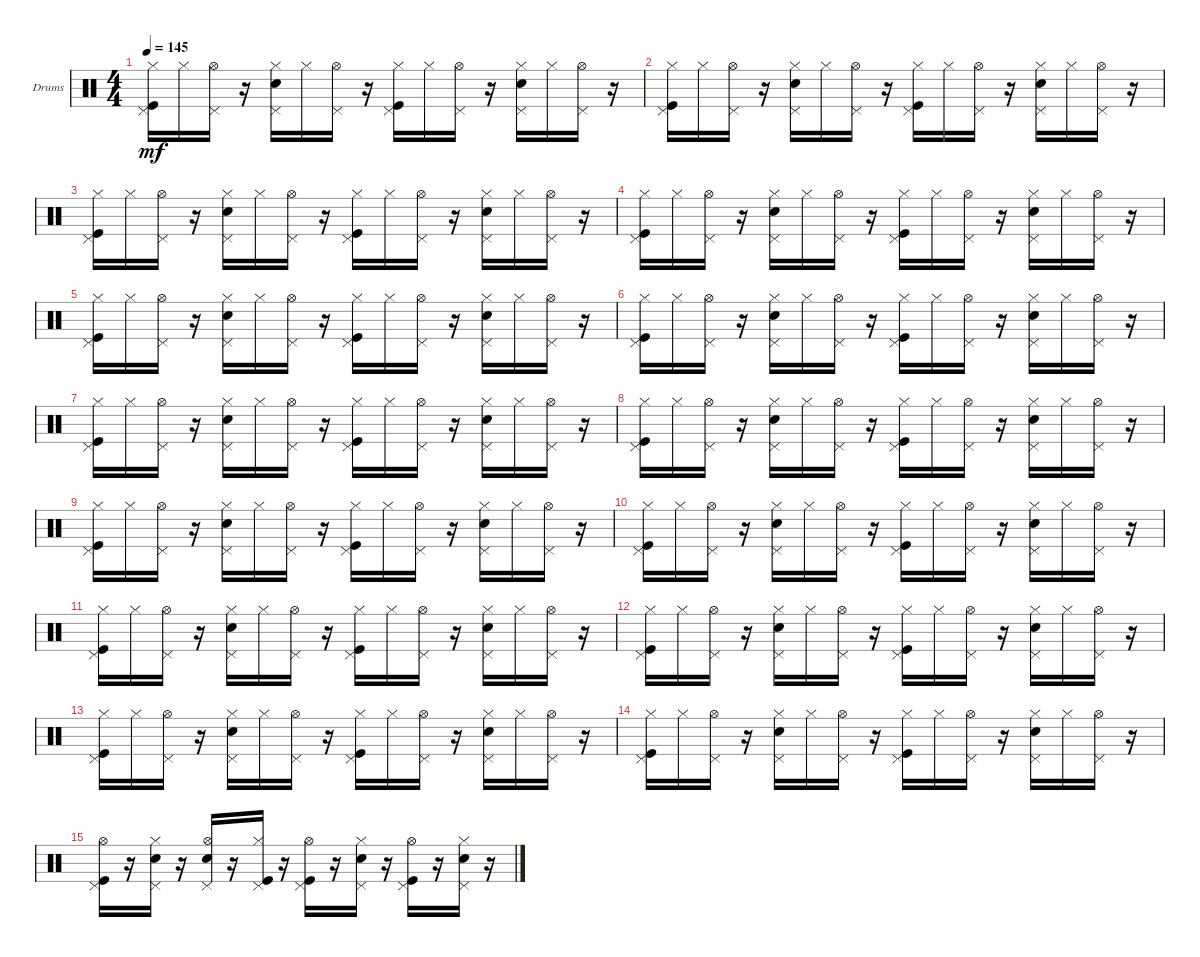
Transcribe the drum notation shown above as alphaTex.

\bracketExtendMode groupsimilarinstruments
\firstSystemTrackNameOrientation horizontal
\otherSystemsTrackNameOrientation horizontal
\track ("Drumkit" "Drums") {solo instrument percussion}
\staff {score}
\articulation defaults
\ts (4 4)
\tempo 145
\clef neutral
\ks c
("Kick (hit)" "Hi-Hat (closed)" "Pedal Hi-Hat (hit)").16{dy mf} "Hi-Hat (closed)".16 ("Hi-Hat (open)" "Pedal Hi-Hat (hit)").16 r.16 ("Snare (hit) 2" "Pedal Hi-Hat (hit)" "Hi-Hat (closed)").16 "Hi-Hat (closed)".16 ("Hi-Hat (open)" "Pedal Hi-Hat (hit)").16 r.16 ("Kick (hit)" "Hi-Hat (closed)" "Pedal Hi-Hat (hit)").16 "Hi-Hat (closed)".16 ("Hi-Hat (open)" "Pedal Hi-Hat (hit)").16 r.16 ("Snare (hit) 2" "Pedal Hi-Hat (hit)" "Hi-Hat (closed)").16 "Hi-Hat (closed)".16 ("Hi-Hat (open)" "Pedal Hi-Hat (hit)").16 r.16 |
("Kick (hit)" "Hi-Hat (closed)" "Pedal Hi-Hat (hit)").16 "Hi-Hat (closed)".16 ("Hi-Hat (open)" "Pedal Hi-Hat (hit)").16 r.16 ("Snare (hit) 2" "Pedal Hi-Hat (hit)" "Hi-Hat (closed)").16 "Hi-Hat (closed)".16 ("Hi-Hat (open)" "Pedal Hi-Hat (hit)").16 r.16 ("Kick (hit)" "Hi-Hat (closed)" "Pedal Hi-Hat (hit)").16 "Hi-Hat (closed)".16 ("Hi-Hat (open)" "Pedal Hi-Hat (hit)").16 r.16 ("Snare (hit) 2" "Pedal Hi-Hat (hit)" "Hi-Hat (closed)").16 "Hi-Hat (closed)".16 ("Hi-Hat (open)" "Pedal Hi-Hat (hit)").16 r.16 |
("Kick (hit)" "Hi-Hat (closed)" "Pedal Hi-Hat (hit)").16 "Hi-Hat (closed)".16 ("Hi-Hat (open)" "Pedal Hi-Hat (hit)").16 r.16 ("Snare (hit) 2" "Pedal Hi-Hat (hit)" "Hi-Hat (closed)").16 "Hi-Hat (closed)".16 ("Hi-Hat (open)" "Pedal Hi-Hat (hit)").16 r.16 ("Kick (hit)" "Hi-Hat (closed)" "Pedal Hi-Hat (hit)").16 "Hi-Hat (closed)".16 ("Hi-Hat (open)" "Pedal Hi-Hat (hit)").16 r.16 ("Snare (hit) 2" "Pedal Hi-Hat (hit)" "Hi-Hat (closed)").16 "Hi-Hat (closed)".16 ("Hi-Hat (open)" "Pedal Hi-Hat (hit)").16 r.16 |
("Kick (hit)" "Hi-Hat (closed)" "Pedal Hi-Hat (hit)").16 "Hi-Hat (closed)".16 ("Pedal Hi-Hat (hit)" "Hi-Hat (open)").16 r.16 ("Snare (hit) 2" "Pedal Hi-Hat (hit)" "Hi-Hat (closed)").16 "Hi-Hat (closed)".16 ("Hi-Hat (open)" "Pedal Hi-Hat (hit)").16 r.16 ("Kick (hit)" "Hi-Hat (closed)" "Pedal Hi-Hat (hit)").16 "Hi-Hat (closed)".16 ("Hi-Hat (open)" "Pedal Hi-Hat (hit)").16 r.16 ("Snare (hit) 2" "Pedal Hi-Hat (hit)" "Hi-Hat (closed)").16 "Hi-Hat (closed)".16 ("Hi-Hat (open)" "Pedal Hi-Hat (hit)").16 r.16 |
("Kick (hit)" "Hi-Hat (closed)" "Pedal Hi-Hat (hit)").16 "Hi-Hat (closed)".16 ("Hi-Hat (open)" "Pedal Hi-Hat (hit)").16 r.16 ("Snare (hit) 2" "Pedal Hi-Hat (hit)" "Hi-Hat (closed)").16 "Hi-Hat (closed)".16 ("Hi-Hat (open)" "Pedal Hi-Hat (hit)").16 r.16 ("Kick (hit)" "Hi-Hat (closed)" "Pedal Hi-Hat (hit)").16 "Hi-Hat (closed)".16 ("Hi-Hat (open)" "Pedal Hi-Hat (hit)").16 r.16 ("Snare (hit) 2" "Pedal Hi-Hat (hit)" "Hi-Hat (closed)").16 "Hi-Hat (closed)".16 ("Hi-Hat (open)" "Pedal Hi-Hat (hit)").16 r.16 |
("Kick (hit)" "Hi-Hat (closed)" "Pedal Hi-Hat (hit)").16 "Hi-Hat (closed)".16 ("Hi-Hat (open)" "Pedal Hi-Hat (hit)").16 r.16 ("Snare (hit) 2" "Pedal Hi-Hat (hit)" "Hi-Hat (closed)").16 "Hi-Hat (closed)".16 ("Hi-Hat (open)" "Pedal Hi-Hat (hit)").16 r.16 ("Kick (hit)" "Hi-Hat (closed)" "Pedal Hi-Hat (hit)").16 "Hi-Hat (closed)".16 ("Hi-Hat (open)" "Pedal Hi-Hat (hit)").16 r.16 ("Snare (hit) 2" "Pedal Hi-Hat (hit)" "Hi-Hat (closed)").16 "Hi-Hat (closed)".16 ("Hi-Hat (open)" "Pedal Hi-Hat (hit)").16 r.16 |
("Kick (hit)" "Hi-Hat (closed)" "Pedal Hi-Hat (hit)").16 "Hi-Hat (closed)".16 ("Hi-Hat (open)" "Pedal Hi-Hat (hit)").16 r.16 ("Snare (hit) 2" "Pedal Hi-Hat (hit)" "Hi-Hat (closed)").16 "Hi-Hat (closed)".16 ("Hi-Hat (open)" "Pedal Hi-Hat (hit)").16 r.16 ("Kick (hit)" "Hi-Hat (closed)" "Pedal Hi-Hat (hit)").16 "Hi-Hat (closed)".16 ("Hi-Hat (open)" "Pedal Hi-Hat (hit)").16 r.16 ("Snare (hit) 2" "Pedal Hi-Hat (hit)" "Hi-Hat (closed)").16 "Hi-Hat (closed)".16 ("Hi-Hat (open)" "Pedal Hi-Hat (hit)").16 r.16 |
("Pedal Hi-Hat (hit)" "Kick (hit)" "Hi-Hat (closed)").16 "Hi-Hat (closed)".16 ("Hi-Hat (open)" "Pedal Hi-Hat (hit)").16 r.16 ("Snare (hit) 2" "Pedal Hi-Hat (hit)" "Hi-Hat (closed)").16 "Hi-Hat (closed)".16 ("Hi-Hat (open)" "Pedal Hi-Hat (hit)").16 r.16 ("Kick (hit)" "Hi-Hat (closed)" "Pedal Hi-Hat (hit)").16 "Hi-Hat (closed)".16 ("Hi-Hat (open)" "Pedal Hi-Hat (hit)").16 r.16 ("Snare (hit) 2" "Pedal Hi-Hat (hit)" "Hi-Hat (closed)").16 "Hi-Hat (closed)".16 ("Hi-Hat (open)" "Pedal Hi-Hat (hit)").16 r.16 |
("Kick (hit)" "Hi-Hat (closed)" "Pedal Hi-Hat (hit)").16 "Hi-Hat (closed)".16 ("Hi-Hat (open)" "Pedal Hi-Hat (hit)").16 r.16 ("Snare (hit) 2" "Pedal Hi-Hat (hit)" "Hi-Hat (closed)").16 "Hi-Hat (closed)".16 ("Hi-Hat (open)" "Pedal Hi-Hat (hit)").16 r.16 ("Kick (hit)" "Hi-Hat (closed)" "Pedal Hi-Hat (hit)").16 "Hi-Hat (closed)".16 ("Hi-Hat (open)" "Pedal Hi-Hat (hit)").16 r.16 ("Snare (hit) 2" "Pedal Hi-Hat (hit)" "Hi-Hat (closed)").16 "Hi-Hat (closed)".16 ("Hi-Hat (open)" "Pedal Hi-Hat (hit)").16 r.16 |
("Kick (hit)" "Hi-Hat (closed)" "Pedal Hi-Hat (hit)").16 "Hi-Hat (closed)".16 ("Hi-Hat (open)" "Pedal Hi-Hat (hit)").16 r.16 ("Snare (hit) 2" "Pedal Hi-Hat (hit)" "Hi-Hat (closed)").16 "Hi-Hat (closed)".16 ("Hi-Hat (open)" "Pedal Hi-Hat (hit)").16 r.16 ("Kick (hit)" "Hi-Hat (closed)" "Pedal Hi-Hat (hit)").16 "Hi-Hat (closed)".16 ("Hi-Hat (open)" "Pedal Hi-Hat (hit)").16 r.16 ("Snare (hit) 2" "Pedal Hi-Hat (hit)" "Hi-Hat (closed)").16 "Hi-Hat (closed)".16 ("Hi-Hat (open)" "Pedal Hi-Hat (hit)").16 r.16 |
("Kick (hit)" "Hi-Hat (closed)" "Pedal Hi-Hat (hit)").16 "Hi-Hat (closed)".16 ("Hi-Hat (open)" "Pedal Hi-Hat (hit)").16 r.16 ("Snare (hit) 2" "Pedal Hi-Hat (hit)" "Hi-Hat (closed)").16 "Hi-Hat (closed)".16 ("Hi-Hat (open)" "Pedal Hi-Hat (hit)").16 r.16 ("Kick (hit)" "Hi-Hat (closed)" "Pedal Hi-Hat (hit)").16 "Hi-Hat (closed)".16 ("Hi-Hat (open)" "Pedal Hi-Hat (hit)").16 r.16 ("Snare (hit) 2" "Pedal Hi-Hat (hit)" "Hi-Hat (closed)").16 "Hi-Hat (closed)".16 ("Hi-Hat (open)" "Pedal Hi-Hat (hit)").16 r.16 |
("Kick (hit)" "Hi-Hat (closed)" "Pedal Hi-Hat (hit)").16 "Hi-Hat (closed)".16 ("Hi-Hat (open)" "Pedal Hi-Hat (hit)").16 r.16 ("Snare (hit) 2" "Pedal Hi-Hat (hit)" "Hi-Hat (closed)").16 "Hi-Hat (closed)".16 ("Hi-Hat (open)" "Pedal Hi-Hat (hit)").16 r.16 ("Kick (hit)" "Hi-Hat (closed)" "Pedal Hi-Hat (hit)").16 "Hi-Hat (closed)".16 ("Hi-Hat (open)" "Pedal Hi-Hat (hit)").16 r.16 ("Snare (hit) 2" "Pedal Hi-Hat (hit)" "Hi-Hat (closed)").16 "Hi-Hat (closed)".16 ("Hi-Hat (open)" "Pedal Hi-Hat (hit)").16 r.16 |
("Kick (hit)" "Hi-Hat (closed)" "Pedal Hi-Hat (hit)").16 "Hi-Hat (closed)".16 ("Hi-Hat (open)" "Pedal Hi-Hat (hit)").16 r.16 ("Snare (hit) 2" "Pedal Hi-Hat (hit)" "Hi-Hat (closed)").16 "Hi-Hat (closed)".16 ("Hi-Hat (open)" "Pedal Hi-Hat (hit)").16 r.16 ("Kick (hit)" "Hi-Hat (closed)" "Pedal Hi-Hat (hit)").16 "Hi-Hat (closed)".16 ("Hi-Hat (open)" "Pedal Hi-Hat (hit)").16 r.16 ("Snare (hit) 2" "Pedal Hi-Hat (hit)" "Hi-Hat (closed)").16 "Hi-Hat (closed)".16 ("Hi-Hat (open)" "Pedal Hi-Hat (hit)").16 r.16 |
("Kick (hit)" "Hi-Hat (closed)" "Pedal Hi-Hat (hit)").16 "Hi-Hat (closed)".16 ("Hi-Hat (open)" "Pedal Hi-Hat (hit)").16 r.16 ("Snare (hit) 2" "Pedal Hi-Hat (hit)" "Hi-Hat (closed)").16 "Hi-Hat (closed)".16 ("Hi-Hat (open)" "Pedal Hi-Hat (hit)").16 r.16 ("Kick (hit)" "Hi-Hat (closed)" "Pedal Hi-Hat (hit)").16 "Hi-Hat (closed)".16 ("Hi-Hat (open)" "Pedal Hi-Hat (hit)").16 r.16 ("Snare (hit) 2" "Pedal Hi-Hat (hit)" "Hi-Hat (closed)").16 "Hi-Hat (closed)".16 ("Hi-Hat (open)" "Pedal Hi-Hat (hit)").16 r.16 |
("Kick (hit)" "Hi-Hat (open)" "Pedal Hi-Hat (hit)").16 r.16 ("Hi-Hat (closed)" "Snare (hit) 2" "Pedal Hi-Hat (hit)").16 r.16 ("Snare (hit) 2" "Hi-Hat (open)" "Pedal Hi-Hat (hit)").16 r.16 ("Hi-Hat (closed)" "Pedal Hi-Hat (hit)" "Kick (hit)").16 r.16 ("Kick (hit)" "Hi-Hat (open)" "Pedal Hi-Hat (hit)").16 r.16 ("Hi-Hat (closed)" "Snare (hit) 2" "Pedal Hi-Hat (hit)").16 r.16 ("Hi-Hat (open)" "Kick (hit)" "Pedal Hi-Hat (hit)").16 r.16 ("Hi-Hat (closed)" "Snare (hit) 2" "Pedal Hi-Hat (hit)").16 r.16
